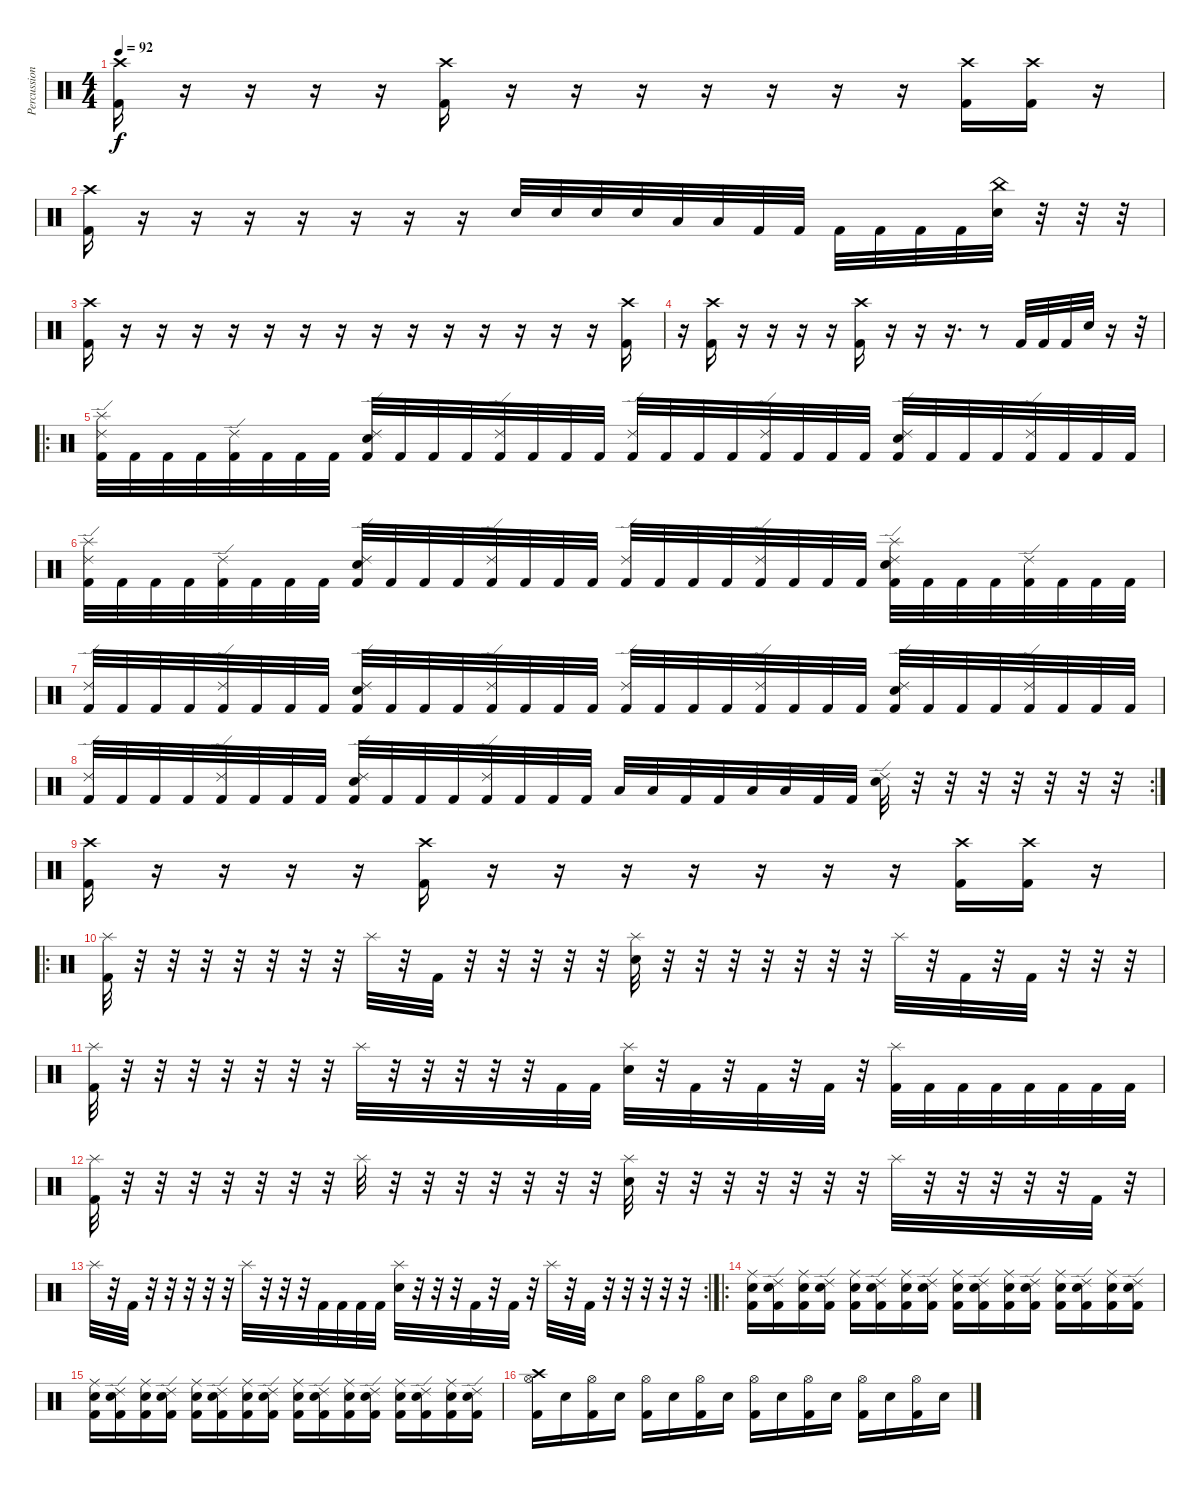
\track ("Percussion" "Percussion") {instrument percussion}
\staff {score}
\articulation defaults
\ts (4 4)
\tempo 92
\clef neutral
\ks c
("Crash high (hit)" "Kick (hit) 2").16{dy f} r.16 r.16 r.16 r.16 ("Crash high (hit)" "Kick (hit) 2").16 r.16 r.16 r.16 r.16 r.16 r.16 r.16 ("Crash high (hit)" "Kick (hit) 2").16 ("Crash high (hit)" "Kick (hit) 2").16 r.16 |
("Crash high (hit)" "Kick (hit) 2").16 r.16 r.16 r.16 r.16 r.16 r.16 r.16 "Electric Snare (hit)".32 "Electric Snare (hit)".32 "Electric Snare (hit)".32 "Electric Snare (hit)".32 "Low Tom (hit)".32 "Low Floor Tom (hit)".32 "Kick (hit) 2".32 "Kick (hit) 2".32 "Kick (hit) 2".32 "Kick (hit) 2".32 "Kick (hit) 2".32 "Kick (hit) 2".32 ("China (hit)" "Electric Snare (hit)").32 r.32 r.32 r.32 |
("Crash high (hit)" "Kick (hit) 2").16 r.16 r.16 r.16 r.16 r.16 r.16 r.16 r.16 r.16 r.16 r.16 r.16 r.16 r.16 ("Crash high (hit)" "Kick (hit) 2").16 |
r.16 ("Crash high (hit)" "Kick (hit) 2").16 r.16 r.16 r.16 r.16 ("Crash high (hit)" "Kick (hit) 2").16 r.16 r.16 r.16{d} r.8 "Kick (hit) 2".32 "Kick (hit) 2".32 "Kick (hit) 2".32 "Electric Snare (hit)".32 r.16 r.32 |
\ro
("Ride (edge) 2" "Splash (hit)" "Kick (hit) 2").32 "Kick (hit) 2".32 "Kick (hit) 2".32 "Kick (hit) 2".32 ("Ride (edge) 2" "Kick (hit) 2").32 "Kick (hit) 2".32 "Kick (hit) 2".32 "Kick (hit) 2".32 ("Ride (edge) 2" "Electric Snare (hit)" "Kick (hit) 2").32 "Kick (hit) 2".32 "Kick (hit) 2".32 "Kick (hit) 2".32 ("Ride (edge) 2" "Kick (hit) 2").32 "Kick (hit) 2".32 "Kick (hit) 2".32 "Kick (hit) 2".32 ("Ride (edge) 2" "Kick (hit) 2").32 "Kick (hit) 2".32 "Kick (hit) 2".32 "Kick (hit) 2".32 ("Ride (edge) 2" "Kick (hit) 2").32 "Kick (hit) 2".32 "Kick (hit) 2".32 "Kick (hit) 2".32 ("Ride (edge) 2" "Electric Snare (hit)" "Kick (hit) 2").32 "Kick (hit) 2".32 "Kick (hit) 2".32 "Kick (hit) 2".32 ("Ride (edge) 2" "Kick (hit) 2").32 "Kick (hit) 2".32 "Kick (hit) 2".32 "Kick (hit) 2".32 |
("Splash (hit)" "Ride (edge) 2" "Kick (hit) 2").32 "Kick (hit) 2".32 "Kick (hit) 2".32 "Kick (hit) 2".32 ("Ride (edge) 2" "Kick (hit) 2").32 "Kick (hit) 2".32 "Kick (hit) 2".32 "Kick (hit) 2".32 ("Ride (edge) 2" "Electric Snare (hit)" "Kick (hit) 2").32 "Kick (hit) 2".32 "Kick (hit) 2".32 "Kick (hit) 2".32 ("Ride (edge) 2" "Kick (hit) 2").32 "Kick (hit) 2".32 "Kick (hit) 2".32 "Kick (hit) 2".32 ("Ride (edge) 2" "Kick (hit) 2").32 "Kick (hit) 2".32 "Kick (hit) 2".32 "Kick (hit) 2".32 ("Ride (edge) 2" "Kick (hit) 2").32 "Kick (hit) 2".32 "Kick (hit) 2".32 "Kick (hit) 2".32 ("Splash (hit)" "Ride (edge) 2" "Electric Snare (hit)" "Kick (hit) 2").32 "Kick (hit) 2".32 "Kick (hit) 2".32 "Kick (hit) 2".32 ("Ride (edge) 2" "Kick (hit) 2").32 "Kick (hit) 2".32 "Kick (hit) 2".32 "Kick (hit) 2".32 |
("Ride (edge) 2" "Kick (hit) 2").32 "Kick (hit) 2".32 "Kick (hit) 2".32 "Kick (hit) 2".32 ("Ride (edge) 2" "Kick (hit) 2").32 "Kick (hit) 2".32 "Kick (hit) 2".32 "Kick (hit) 2".32 ("Ride (edge) 2" "Electric Snare (hit)" "Kick (hit) 2").32 "Kick (hit) 2".32 "Kick (hit) 2".32 "Kick (hit) 2".32 ("Ride (edge) 2" "Kick (hit) 2").32 "Kick (hit) 2".32 "Kick (hit) 2".32 "Kick (hit) 2".32 ("Ride (edge) 2" "Kick (hit) 2").32 "Kick (hit) 2".32 "Kick (hit) 2".32 "Kick (hit) 2".32 ("Ride (edge) 2" "Kick (hit) 2").32 "Kick (hit) 2".32 "Kick (hit) 2".32 "Kick (hit) 2".32 ("Ride (edge) 2" "Electric Snare (hit)" "Kick (hit) 2").32 "Kick (hit) 2".32 "Kick (hit) 2".32 "Kick (hit) 2".32 ("Ride (edge) 2" "Kick (hit) 2").32 "Kick (hit) 2".32 "Kick (hit) 2".32 "Kick (hit) 2".32 |
\rc 2
("Ride (edge) 2" "Kick (hit) 2").32 "Kick (hit) 2".32 "Kick (hit) 2".32 "Kick (hit) 2".32 ("Ride (edge) 2" "Kick (hit) 2").32 "Kick (hit) 2".32 "Kick (hit) 2".32 "Kick (hit) 2".32 ("Ride (edge) 2" "Electric Snare (hit)" "Kick (hit) 2").32 "Kick (hit) 2".32 "Kick (hit) 2".32 "Kick (hit) 2".32 ("Ride (edge) 2" "Kick (hit) 2").32 "Kick (hit) 2".32 "Kick (hit) 2".32 "Kick (hit) 2".32 "Low Tom (hit)".32 "Low Tom (hit)".32 "Kick (hit) 2".32 "Kick (hit) 2".32 "Low Floor Tom (hit)".32 "Low Floor Tom (hit)".32 "Kick (hit) 2".32 "Kick (hit) 2".32 ("Ride (edge) 2" "Electric Snare (hit)").32 r.32 r.32 r.32 r.32 r.32 r.32 r.32 |
("Crash high (hit)" "Kick (hit) 2").16 r.16 r.16 r.16 r.16 ("Crash high (hit)" "Kick (hit) 2").16 r.16 r.16 r.16 r.16 r.16 r.16 r.16 ("Crash high (hit)" "Kick (hit) 2").16 ("Crash high (hit)" "Kick (hit) 2").16 r.16 |
\ro
("Splash (hit)" "Kick (hit) 2").32 r.32 r.32 r.32 r.32 r.32 r.32 r.32 "Splash (hit)".32 r.32 "Kick (hit) 2".32 r.32 r.32 r.32 r.32 r.32 ("Splash (hit)" "Electric Snare (hit)").32 r.32 r.32 r.32 r.32 r.32 r.32 r.32 "Splash (hit)".32 r.32 "Kick (hit) 2".32 r.32 "Kick (hit) 2".32 r.32 r.32 r.32 |
("Splash (hit)" "Kick (hit) 2").32 r.32 r.32 r.32 r.32 r.32 r.32 r.32 "Splash (hit)".32 r.32 r.32 r.32 r.32 r.32 "Kick (hit) 2".32 "Kick (hit) 2".32 ("Splash (hit)" "Electric Snare (hit)").32 r.32 "Kick (hit) 2".32 r.32 "Kick (hit) 2".32 r.32 "Kick (hit) 2".32 r.32 ("Splash (hit)" "Kick (hit) 2").32 "Kick (hit) 2".32 "Kick (hit) 2".32 "Kick (hit) 2".32 "Kick (hit) 2".32 "Kick (hit) 2".32 "Kick (hit) 2".32 "Kick (hit) 2".32 |
("Splash (hit)" "Kick (hit) 2").32 r.32 r.32 r.32 r.32 r.32 r.32 r.32 "Splash (hit)".32 r.32 r.32 r.32 r.32 r.32 r.32 r.32 ("Splash (hit)" "Electric Snare (hit)").32 r.32 r.32 r.32 r.32 r.32 r.32 r.32 "Splash (hit)".32 r.32 r.32 r.32 r.32 r.32 "Kick (hit) 2".32 r.32 |
\rc 2 "Splash (hit)".32
r.32 "Kick (hit) 2".32 r.32 r.32 r.32 r.32 r.32 "Splash (hit)".32 r.32 r.32 r.32 "Kick (hit) 2".32 "Kick (hit) 2".32 "Kick (hit) 2".32 "Kick (hit) 2".32 ("Splash (hit)" "Electric Snare (hit)").32 r.32 r.32 r.32 "Kick (hit) 2".32 r.32 "Kick (hit) 2".32 r.32 "Splash (hit)".32 r.32 "Kick (hit) 2".32 r.32 r.32 r.32 r.32 r.32 |
\ro
("Ride (middle)" "Electric Snare (hit)" "Kick (hit) 2").16 ("Ride (edge) 2" "Electric Snare (hit)" "Kick (hit) 2").16 ("Ride (middle)" "Electric Snare (hit)" "Kick (hit) 2").16 ("Ride (edge) 2" "Electric Snare (hit)" "Kick (hit) 2").16 ("Ride (middle)" "Electric Snare (hit)" "Kick (hit) 2").16 ("Ride (edge) 2" "Electric Snare (hit)" "Kick (hit) 2").16 ("Ride (middle)" "Electric Snare (hit)" "Kick (hit) 2").16 ("Ride (edge) 2" "Electric Snare (hit)" "Kick (hit) 2").16 ("Ride (middle)" "Electric Snare (hit)" "Kick (hit) 2").16 ("Ride (edge) 2" "Electric Snare (hit)" "Kick (hit) 2").16 ("Ride (middle)" "Electric Snare (hit)" "Kick (hit) 2").16 ("Ride (edge) 2" "Electric Snare (hit)" "Kick (hit) 2").16 ("Ride (middle)" "Electric Snare (hit)" "Kick (hit) 2").16 ("Ride (edge) 2" "Electric Snare (hit)" "Kick (hit) 2").16 ("Ride (middle)" "Electric Snare (hit)" "Kick (hit) 2").16 ("Ride (edge) 2" "Electric Snare (hit)" "Kick (hit) 2").16 |
("Ride (middle)" "Electric Snare (hit)" "Kick (hit) 2").16 ("Ride (edge) 2" "Electric Snare (hit)" "Kick (hit) 2").16 ("Ride (middle)" "Electric Snare (hit)" "Kick (hit) 2").16 ("Ride (edge) 2" "Electric Snare (hit)" "Kick (hit) 2").16 ("Ride (middle)" "Electric Snare (hit)" "Kick (hit) 2").16 ("Ride (edge) 2" "Electric Snare (hit)" "Kick (hit) 2").16 ("Ride (middle)" "Electric Snare (hit)" "Kick (hit) 2").16 ("Ride (edge) 2" "Electric Snare (hit)" "Kick (hit) 2").16 ("Ride (middle)" "Electric Snare (hit)" "Kick (hit) 2").16 ("Ride (edge) 2" "Electric Snare (hit)" "Kick (hit) 2").16 ("Ride (middle)" "Electric Snare (hit)" "Kick (hit) 2").16 ("Ride (edge) 2" "Electric Snare (hit)" "Kick (hit) 2").16 ("Ride (middle)" "Electric Snare (hit)" "Kick (hit) 2").16 ("Ride (edge) 2" "Electric Snare (hit)" "Kick (hit) 2").16 ("Ride (middle)" "Electric Snare (hit)" "Kick (hit) 2").16 ("Ride (edge) 2" "Electric Snare (hit)" "Kick (hit) 2").16 |
("Crash high (hit)" "Hi-Hat (open)" "Kick (hit) 2").16 "Electric Snare (hit)".16 ("Hi-Hat (open)" "Kick (hit) 2").16 "Electric Snare (hit)".16 ("Hi-Hat (open)" "Kick (hit) 2").16 "Electric Snare (hit)".16 ("Hi-Hat (open)" "Kick (hit) 2").16 "Electric Snare (hit)".16 ("Hi-Hat (open)" "Kick (hit) 2").16 "Electric Snare (hit)".16 ("Hi-Hat (open)" "Kick (hit) 2").16 "Electric Snare (hit)".16 ("Hi-Hat (open)" "Kick (hit) 2").16 "Electric Snare (hit)".16 ("Hi-Hat (open)" "Kick (hit) 2").16 "Electric Snare (hit)".16
